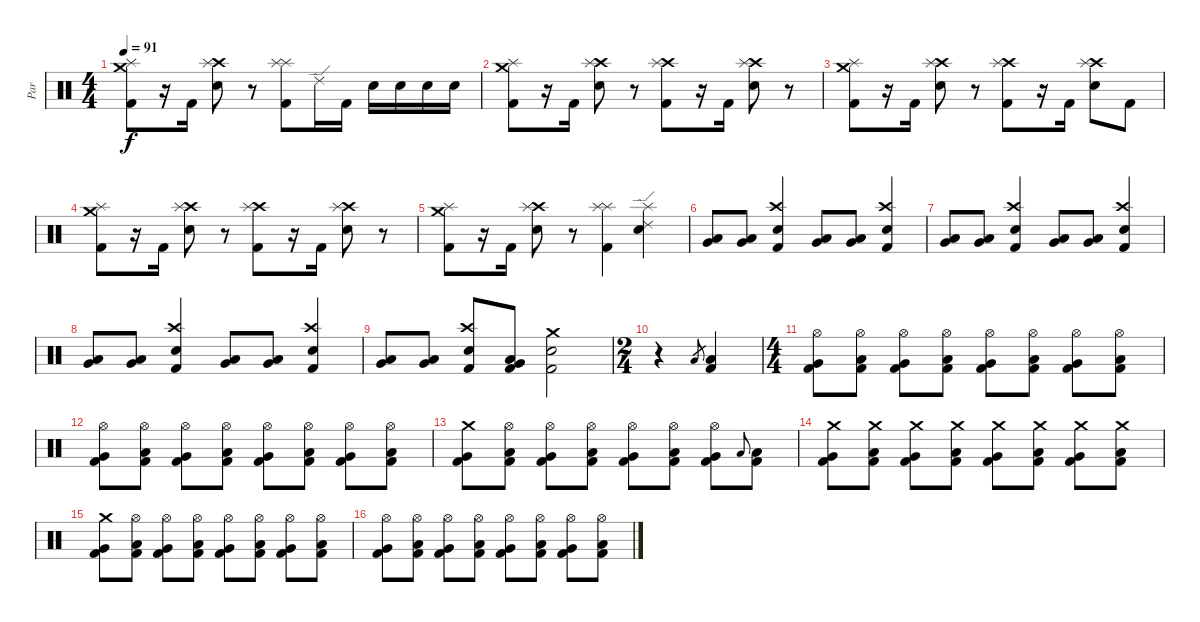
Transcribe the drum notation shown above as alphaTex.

\track ("Par" "Par") {instrument percussion}
\staff {score}
\articulation defaults
\ts (4 4)
\tempo 91
\clef neutral
\ks c
("Crash medium (hit)" "Splash (hit)" "Kick (hit) 2").8{dy f} r.16 "Kick (hit) 2".16 ("Crash high (hit)" "Splash (hit)" "Snare (hit) 2").8 r.8 ("Splash (hit)" "Splash (hit)" "Kick (hit) 2").8 "Ride (edge) 2".16 "Kick (hit) 2".16 "Snare (hit) 2".16 "Snare (hit) 2".16 "Snare (hit) 2".16 "Snare (hit) 2".16 |
("Crash medium (hit)" "Splash (hit)" "Kick (hit) 2").8 r.16 "Kick (hit) 2".16 ("Crash high (hit)" "Splash (hit)" "Snare (hit) 2").8 r.8 ("Crash high (hit)" "Splash (hit)" "Kick (hit) 2").8 r.16 "Kick (hit) 2".16 ("Crash high (hit)" "Splash (hit)" "Snare (hit) 2").8 r.8 |
("Crash medium (hit)" "Splash (hit)" "Kick (hit) 2").8 r.16 "Kick (hit) 2".16 ("Crash high (hit)" "Splash (hit)" "Snare (hit) 2").8 r.8 ("Crash high (hit)" "Splash (hit)" "Kick (hit) 2").8 r.16 "Kick (hit) 2".16 ("Crash high (hit)" "Splash (hit)" "Snare (hit) 2").8 "Kick (hit) 2".8 |
("Crash medium (hit)" "Splash (hit)" "Kick (hit) 2").8 r.16 "Kick (hit) 2".16 ("Crash high (hit)" "Splash (hit)" "Snare (hit) 2").8 r.8 ("Crash high (hit)" "Splash (hit)" "Kick (hit) 2").8 r.16 "Kick (hit) 2".16 ("Crash high (hit)" "Splash (hit)" "Snare (hit) 2").8 r.8 |
("Crash medium (hit)" "Splash (hit)" "Kick (hit) 2").8 r.16 "Kick (hit) 2".16 ("Crash high (hit)" "Splash (hit)" "Snare (hit) 2").8 r.8 ("Splash (hit)" "Splash (hit)" "Kick (hit) 2").4 ("Splash (hit)" "Ride (edge) 2" "Snare (hit) 2").4 |
("Very Low Tom (hit)" "Low Floor Tom (hit)").8 ("Very Low Tom (hit)" "Low Floor Tom (hit)").8 ("Crash high (hit)" "Snare (hit) 2" "Kick (hit) 2").4 ("Very Low Tom (hit)" "Low Floor Tom (hit)").8 ("Very Low Tom (hit)" "Low Floor Tom (hit)").8 ("Crash high (hit)" "Snare (hit) 2" "Kick (hit) 2").4 |
("Very Low Tom (hit)" "Low Floor Tom (hit)").8 ("Very Low Tom (hit)" "Low Floor Tom (hit)").8 ("Crash high (hit)" "Snare (hit) 2" "Kick (hit) 2").4 ("Very Low Tom (hit)" "Low Floor Tom (hit)").8 ("Very Low Tom (hit)" "Low Floor Tom (hit)").8 ("Crash high (hit)" "Snare (hit) 2" "Kick (hit) 2").4 |
("Very Low Tom (hit)" "Low Floor Tom (hit)").8 ("Very Low Tom (hit)" "Low Floor Tom (hit)").8 ("Crash high (hit)" "Snare (hit) 2" "Kick (hit) 2").4 ("Very Low Tom (hit)" "Low Floor Tom (hit)").8 ("Very Low Tom (hit)" "Low Floor Tom (hit)").8 ("Crash high (hit)" "Snare (hit) 2" "Kick (hit) 2").4 |
("Very Low Tom (hit)" "Low Floor Tom (hit)").8 ("Very Low Tom (hit)" "Low Floor Tom (hit)").8 ("Crash high (hit)" "Snare (hit) 2" "Kick (hit) 2").8 ("Very Low Tom (hit)" "Low Floor Tom (hit)" "Kick (hit) 2").8 ("Crash medium (hit)" "Snare (hit) 2" "Kick (hit) 2").2 |
\ts (2 4)
r.4 "Low Floor Tom (hit)".8{gr} ("Low Floor Tom (hit)" "Kick (hit) 2").4 |
\ts (4 4)
("Hi-Hat (open)" "Very Low Tom (hit)" "Kick (hit) 2").8 ("Hi-Hat (open)" "Low Floor Tom (hit)" "Kick (hit) 2").8 ("Hi-Hat (open)" "Very Low Tom (hit)" "Kick (hit) 2").8 ("Hi-Hat (open)" "Low Floor Tom (hit)" "Kick (hit) 2").8 ("Hi-Hat (open)" "Very Low Tom (hit)" "Kick (hit) 2").8 ("Hi-Hat (open)" "Low Floor Tom (hit)" "Kick (hit) 2").8 ("Hi-Hat (open)" "Very Low Tom (hit)" "Kick (hit) 2").8 ("Hi-Hat (open)" "Low Floor Tom (hit)" "Kick (hit) 2").8 |
("Hi-Hat (open)" "Very Low Tom (hit)" "Kick (hit) 2").8 ("Hi-Hat (open)" "Low Floor Tom (hit)" "Kick (hit) 2").8 ("Hi-Hat (open)" "Very Low Tom (hit)" "Kick (hit) 2").8 ("Hi-Hat (open)" "Low Floor Tom (hit)" "Kick (hit) 2").8 ("Hi-Hat (open)" "Very Low Tom (hit)" "Kick (hit) 2").8 ("Hi-Hat (open)" "Low Floor Tom (hit)" "Kick (hit) 2").8 ("Hi-Hat (open)" "Very Low Tom (hit)" "Kick (hit) 2").8 ("Hi-Hat (open)" "Low Floor Tom (hit)" "Kick (hit) 2").8 |
("Crash medium (hit)" "Very Low Tom (hit)" "Kick (hit) 2").8 ("Hi-Hat (open)" "Low Floor Tom (hit)" "Kick (hit) 2").8 ("Hi-Hat (open)" "Very Low Tom (hit)" "Kick (hit) 2").8 ("Hi-Hat (open)" "Low Floor Tom (hit)" "Kick (hit) 2").8 ("Hi-Hat (open)" "Very Low Tom (hit)" "Kick (hit) 2").8 ("Hi-Hat (open)" "Low Floor Tom (hit)" "Kick (hit) 2").8 ("Hi-Hat (open)" "Very Low Tom (hit)" "Kick (hit) 2").8 "Low Floor Tom (hit)".8{gr onbeat} ("Low Floor Tom (hit)" "Kick (hit) 2").8 |
("Crash medium (hit)" "Very Low Tom (hit)" "Kick (hit) 2").8 ("Crash medium (hit)" "Low Floor Tom (hit)" "Kick (hit) 2").8 ("Crash medium (hit)" "Very Low Tom (hit)" "Kick (hit) 2").8 ("Crash medium (hit)" "Low Floor Tom (hit)" "Kick (hit) 2").8 ("Crash medium (hit)" "Very Low Tom (hit)" "Kick (hit) 2").8 ("Crash medium (hit)" "Low Floor Tom (hit)" "Kick (hit) 2").8 ("Crash medium (hit)" "Very Low Tom (hit)" "Kick (hit) 2").8 ("Crash medium (hit)" "Low Floor Tom (hit)" "Kick (hit) 2").8 |
("Crash medium (hit)" "Very Low Tom (hit)" "Kick (hit) 2").8 ("Hi-Hat (open)" "Low Floor Tom (hit)" "Kick (hit) 2").8 ("Hi-Hat (open)" "Very Low Tom (hit)" "Kick (hit) 2").8 ("Hi-Hat (open)" "Low Floor Tom (hit)" "Kick (hit) 2").8 ("Hi-Hat (open)" "Very Low Tom (hit)" "Kick (hit) 2").8 ("Hi-Hat (open)" "Low Floor Tom (hit)" "Kick (hit) 2").8 ("Hi-Hat (open)" "Very Low Tom (hit)" "Kick (hit) 2").8 ("Hi-Hat (open)" "Low Floor Tom (hit)" "Kick (hit) 2").8 |
("Hi-Hat (open)" "Very Low Tom (hit)" "Kick (hit) 2").8 ("Hi-Hat (open)" "Low Floor Tom (hit)" "Kick (hit) 2").8 ("Hi-Hat (open)" "Very Low Tom (hit)" "Kick (hit) 2").8 ("Hi-Hat (open)" "Low Floor Tom (hit)" "Kick (hit) 2").8 ("Hi-Hat (open)" "Very Low Tom (hit)" "Kick (hit) 2").8 ("Hi-Hat (open)" "Low Floor Tom (hit)" "Kick (hit) 2").8 ("Hi-Hat (open)" "Very Low Tom (hit)" "Kick (hit) 2").8 ("Hi-Hat (open)" "Low Floor Tom (hit)" "Kick (hit) 2").8
